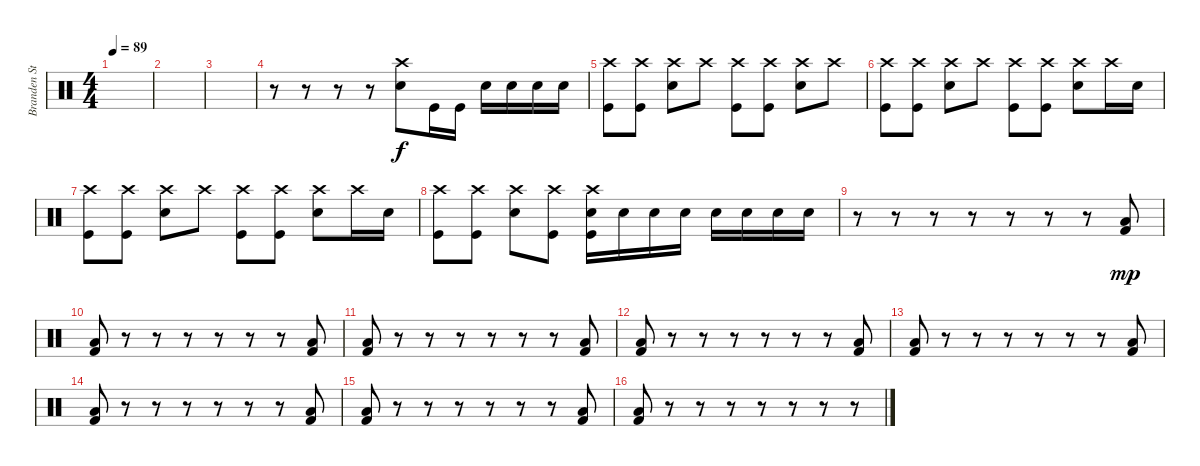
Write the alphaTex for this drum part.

\track ("Branden Steineckert - Drums" "Branden St") {instrument percussion}
\staff {score}
\articulation defaults
\ts (4 4)
\tempo 89
\clef neutral
\ks c
|
|
|
r.8 r.8 r.8 r.8 ("Crash high (hit)" "Electric Snare (hit)").8 "Kick (hit)".16 "Kick (hit)".16 "Electric Snare (hit)".16 "Electric Snare (hit)".16 "Electric Snare (hit)".16 "Electric Snare (hit)".16 |
("Crash high (hit)" "Kick (hit)").8 ("Crash high (hit)" "Kick (hit)").8 ("Crash high (hit)" "Electric Snare (hit)").8 "Crash high (hit)".8 ("Crash high (hit)" "Kick (hit)").8 ("Crash high (hit)" "Kick (hit)").8 ("Crash high (hit)" "Electric Snare (hit)").8 "Crash high (hit)".8 |
("Crash high (hit)" "Kick (hit)").8 ("Crash high (hit)" "Kick (hit)").8 ("Crash high (hit)" "Electric Snare (hit)").8 "Crash high (hit)".8 ("Crash high (hit)" "Kick (hit)").8 ("Crash high (hit)" "Kick (hit)").8 ("Crash high (hit)" "Electric Snare (hit)").8 "Crash high (hit)".16 "Electric Snare (hit)".16 |
("Crash high (hit)" "Kick (hit)").8 ("Crash high (hit)" "Kick (hit)").8 ("Crash high (hit)" "Electric Snare (hit)").8 "Crash high (hit)".8 ("Crash high (hit)" "Kick (hit)").8 ("Crash high (hit)" "Kick (hit)").8 ("Crash high (hit)" "Electric Snare (hit)").8 "Crash high (hit)".16 "Electric Snare (hit)".16 |
("Crash high (hit)" "Kick (hit)").8 ("Crash high (hit)" "Kick (hit)").8 ("Crash high (hit)" "Electric Snare (hit)").8 ("Crash high (hit)" "Kick (hit)").8 ("Crash high (hit)" "Electric Snare (hit)" "Kick (hit)").16 "Electric Snare (hit)".16 "Electric Snare (hit)".16 "Electric Snare (hit)".16 "Electric Snare (hit)".16 "Electric Snare (hit)".16 "Electric Snare (hit)".16 "Electric Snare (hit)".16 |
r.8 r.8 r.8 r.8 r.8 r.8 r.8 ("Low Floor Tom (hit)" "Kick (hit) 2").8{dy mp} |
("Low Floor Tom (hit)" "Kick (hit) 2").8 r.8 r.8 r.8 r.8 r.8 r.8 ("Low Floor Tom (hit)" "Kick (hit) 2").8 |
("Low Floor Tom (hit)" "Kick (hit) 2").8 r.8 r.8 r.8 r.8 r.8 r.8 ("Low Floor Tom (hit)" "Kick (hit) 2").8 |
("Low Floor Tom (hit)" "Kick (hit) 2").8 r.8 r.8 r.8 r.8 r.8 r.8 ("Low Floor Tom (hit)" "Kick (hit) 2").8 |
("Low Floor Tom (hit)" "Kick (hit) 2").8 r.8 r.8 r.8 r.8 r.8 r.8 ("Low Floor Tom (hit)" "Kick (hit) 2").8 |
("Low Floor Tom (hit)" "Kick (hit) 2").8 r.8 r.8 r.8 r.8 r.8 r.8 ("Low Floor Tom (hit)" "Kick (hit) 2").8 |
("Low Floor Tom (hit)" "Kick (hit) 2").8 r.8 r.8 r.8 r.8 r.8 r.8 ("Low Floor Tom (hit)" "Kick (hit) 2").8 |
("Low Floor Tom (hit)" "Kick (hit) 2").8 r.8 r.8 r.8 r.8 r.8 r.8 r.8
